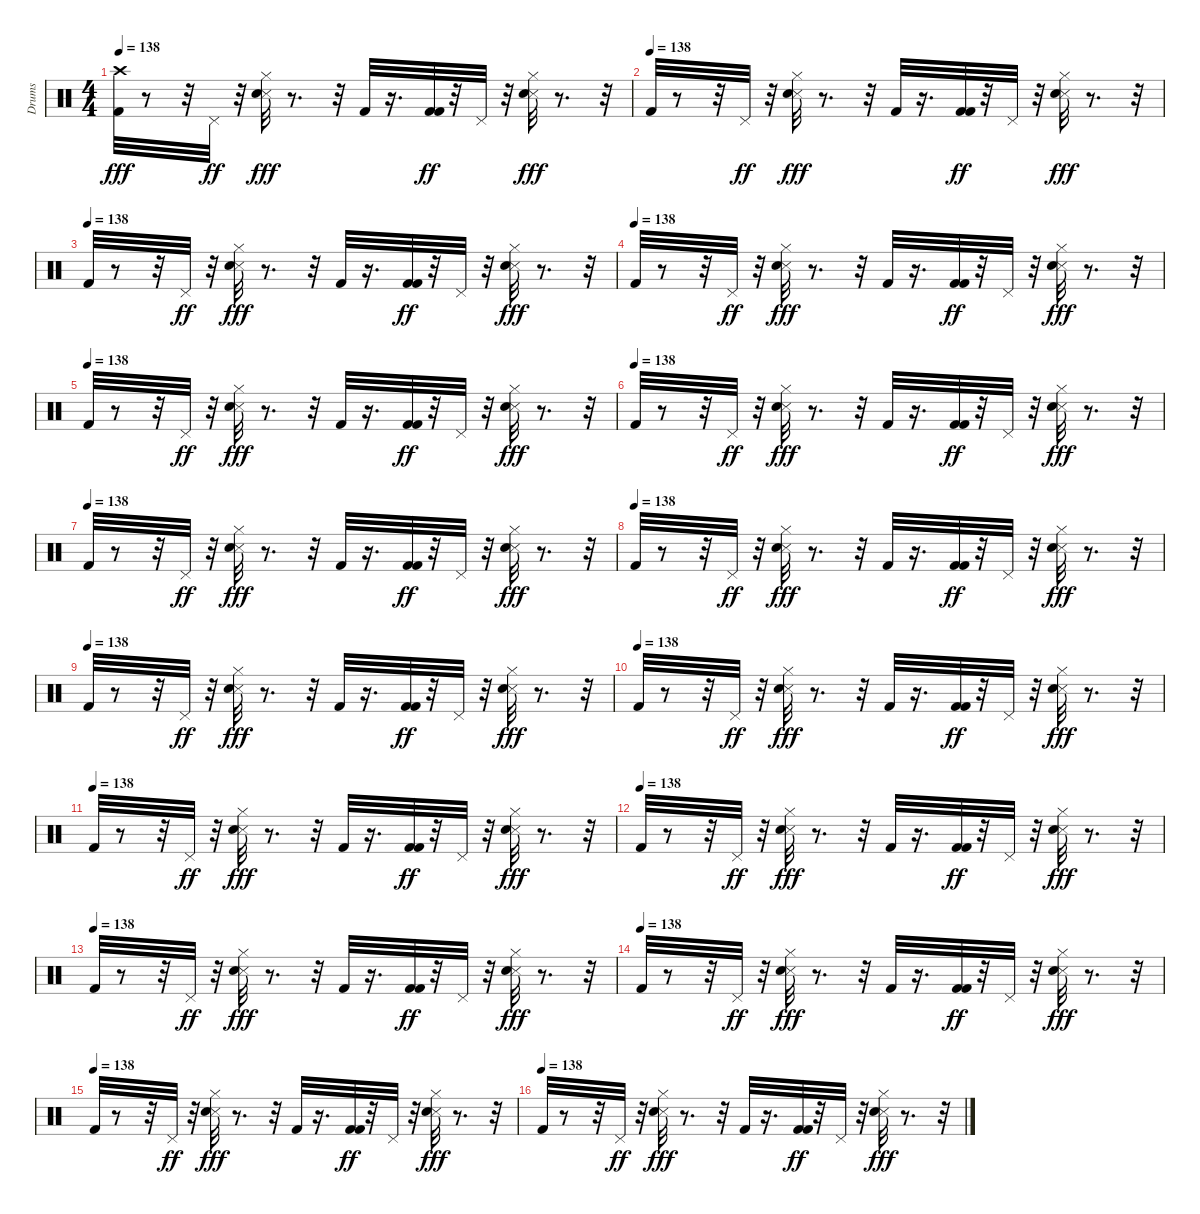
\track ("Drums" "Drums") {instrument percussion}
\staff {score}
\articulation defaults
\ts (4 4)
\tempo 138
\clef neutral
\ks c
("Kick (hit) 2" "Crash high (hit)").32{dy fff volume 10} r.8 r.32 "Pedal Hi-Hat (hit)".32{dy ff} r.32 ("Snare (side stick) 3" "Snare (hit) 2" "Hi-Hat (closed)").32{dy fff} r.8{d} r.32 "Kick (hit) 2".32 r.16{d} ("Kick (hit) 2" "Kick (hit) 2").32{dy ff} r.32 "Pedal Hi-Hat (hit)".32 r.32 ("Snare (side stick) 3" "Snare (hit) 2" "Hi-Hat (closed)").32{dy fff} r.8{d} r.32 |
\tempo (138)
"Kick (hit) 2".32{volume 10} r.8 r.32 "Pedal Hi-Hat (hit)".32{dy ff} r.32 ("Snare (side stick) 3" "Snare (hit) 2" "Hi-Hat (closed)").32{dy fff} r.8{d} r.32 "Kick (hit) 2".32 r.16{d} ("Kick (hit) 2" "Kick (hit) 2").32{dy ff} r.32 "Pedal Hi-Hat (hit)".32 r.32 ("Snare (side stick) 3" "Snare (hit) 2" "Hi-Hat (closed)").32{dy fff} r.8{d} r.32 |
\tempo (138)
"Kick (hit) 2".32{volume 10} r.8 r.32 "Pedal Hi-Hat (hit)".32{dy ff} r.32 ("Snare (side stick) 3" "Snare (hit) 2" "Hi-Hat (closed)").32{dy fff} r.8{d} r.32 "Kick (hit) 2".32 r.16{d} ("Kick (hit) 2" "Kick (hit) 2").32{dy ff} r.32 "Pedal Hi-Hat (hit)".32 r.32 ("Snare (side stick) 3" "Snare (hit) 2" "Hi-Hat (closed)").32{dy fff} r.8{d} r.32 |
\tempo (138)
"Kick (hit) 2".32{volume 10} r.8 r.32 "Pedal Hi-Hat (hit)".32{dy ff} r.32 ("Snare (side stick) 3" "Snare (hit) 2" "Hi-Hat (closed)").32{dy fff} r.8{d} r.32 "Kick (hit) 2".32 r.16{d} ("Kick (hit) 2" "Kick (hit) 2").32{dy ff} r.32 "Pedal Hi-Hat (hit)".32 r.32 ("Snare (side stick) 3" "Snare (hit) 2" "Hi-Hat (closed)").32{dy fff} r.8{d} r.32 |
\tempo (138)
"Kick (hit) 2".32{volume 10} r.8 r.32 "Pedal Hi-Hat (hit)".32{dy ff} r.32 ("Snare (side stick) 3" "Snare (hit) 2" "Hi-Hat (closed)").32{dy fff} r.8{d} r.32 "Kick (hit) 2".32 r.16{d} ("Kick (hit) 2" "Kick (hit) 2").32{dy ff} r.32 "Pedal Hi-Hat (hit)".32 r.32 ("Snare (side stick) 3" "Snare (hit) 2" "Hi-Hat (closed)").32{dy fff} r.8{d} r.32 |
\tempo (138)
"Kick (hit) 2".32{volume 10} r.8 r.32 "Pedal Hi-Hat (hit)".32{dy ff} r.32 ("Snare (side stick) 3" "Snare (hit) 2" "Hi-Hat (closed)").32{dy fff} r.8{d} r.32 "Kick (hit) 2".32 r.16{d} ("Kick (hit) 2" "Kick (hit) 2").32{dy ff} r.32 "Pedal Hi-Hat (hit)".32 r.32 ("Snare (side stick) 3" "Snare (hit) 2" "Hi-Hat (closed)").32{dy fff} r.8{d} r.32 |
\tempo (138)
"Kick (hit) 2".32{volume 10} r.8 r.32 "Pedal Hi-Hat (hit)".32{dy ff} r.32 ("Snare (side stick) 3" "Snare (hit) 2" "Hi-Hat (closed)").32{dy fff} r.8{d} r.32 "Kick (hit) 2".32 r.16{d} ("Kick (hit) 2" "Kick (hit) 2").32{dy ff} r.32 "Pedal Hi-Hat (hit)".32 r.32 ("Snare (side stick) 3" "Snare (hit) 2" "Hi-Hat (closed)").32{dy fff} r.8{d} r.32 |
\tempo (138)
"Kick (hit) 2".32{volume 10} r.8 r.32 "Pedal Hi-Hat (hit)".32{dy ff} r.32 ("Snare (side stick) 3" "Snare (hit) 2" "Hi-Hat (closed)").32{dy fff} r.8{d} r.32 "Kick (hit) 2".32 r.16{d} ("Kick (hit) 2" "Kick (hit) 2").32{dy ff} r.32 "Pedal Hi-Hat (hit)".32 r.32 ("Snare (side stick) 3" "Snare (hit) 2" "Hi-Hat (closed)").32{dy fff} r.8{d} r.32 |
\tempo (138)
"Kick (hit) 2".32{volume 10} r.8 r.32 "Pedal Hi-Hat (hit)".32{dy ff} r.32 ("Snare (side stick) 3" "Snare (hit) 2" "Hi-Hat (closed)").32{dy fff} r.8{d} r.32 "Kick (hit) 2".32 r.16{d} ("Kick (hit) 2" "Kick (hit) 2").32{dy ff} r.32 "Pedal Hi-Hat (hit)".32 r.32 ("Snare (side stick) 3" "Snare (hit) 2" "Hi-Hat (closed)").32{dy fff} r.8{d} r.32 |
\tempo (138)
"Kick (hit) 2".32{volume 10} r.8 r.32 "Pedal Hi-Hat (hit)".32{dy ff} r.32 ("Snare (side stick) 3" "Snare (hit) 2" "Hi-Hat (closed)").32{dy fff} r.8{d} r.32 "Kick (hit) 2".32 r.16{d} ("Kick (hit) 2" "Kick (hit) 2").32{dy ff} r.32 "Pedal Hi-Hat (hit)".32 r.32 ("Snare (side stick) 3" "Snare (hit) 2" "Hi-Hat (closed)").32{dy fff} r.8{d} r.32 |
\tempo (138)
"Kick (hit) 2".32{volume 10} r.8 r.32 "Pedal Hi-Hat (hit)".32{dy ff} r.32 ("Snare (side stick) 3" "Snare (hit) 2" "Hi-Hat (closed)").32{dy fff} r.8{d} r.32 "Kick (hit) 2".32 r.16{d} ("Kick (hit) 2" "Kick (hit) 2").32{dy ff} r.32 "Pedal Hi-Hat (hit)".32 r.32 ("Snare (side stick) 3" "Snare (hit) 2" "Hi-Hat (closed)").32{dy fff} r.8{d} r.32 |
\tempo (138)
"Kick (hit) 2".32{volume 10} r.8 r.32 "Pedal Hi-Hat (hit)".32{dy ff} r.32 ("Snare (side stick) 3" "Snare (hit) 2" "Hi-Hat (closed)").32{dy fff} r.8{d} r.32 "Kick (hit) 2".32 r.16{d} ("Kick (hit) 2" "Kick (hit) 2").32{dy ff} r.32 "Pedal Hi-Hat (hit)".32 r.32 ("Snare (side stick) 3" "Snare (hit) 2" "Hi-Hat (closed)").32{dy fff} r.8{d} r.32 |
\tempo (138)
"Kick (hit) 2".32{volume 10} r.8 r.32 "Pedal Hi-Hat (hit)".32{dy ff} r.32 ("Snare (side stick) 3" "Snare (hit) 2" "Hi-Hat (closed)").32{dy fff} r.8{d} r.32 "Kick (hit) 2".32 r.16{d} ("Kick (hit) 2" "Kick (hit) 2").32{dy ff} r.32 "Pedal Hi-Hat (hit)".32 r.32 ("Snare (side stick) 3" "Snare (hit) 2" "Hi-Hat (closed)").32{dy fff} r.8{d} r.32 |
\tempo (138)
"Kick (hit) 2".32{volume 10} r.8 r.32 "Pedal Hi-Hat (hit)".32{dy ff} r.32 ("Snare (side stick) 3" "Snare (hit) 2" "Hi-Hat (closed)").32{dy fff} r.8{d} r.32 "Kick (hit) 2".32 r.16{d} ("Kick (hit) 2" "Kick (hit) 2").32{dy ff} r.32 "Pedal Hi-Hat (hit)".32 r.32 ("Snare (side stick) 3" "Snare (hit) 2" "Hi-Hat (closed)").32{dy fff} r.8{d} r.32 |
\tempo (138)
"Kick (hit) 2".32{volume 10} r.8 r.32 "Pedal Hi-Hat (hit)".32{dy ff} r.32 ("Snare (side stick) 3" "Snare (hit) 2" "Hi-Hat (closed)").32{dy fff} r.8{d} r.32 "Kick (hit) 2".32 r.16{d} ("Kick (hit) 2" "Kick (hit) 2").32{dy ff} r.32 "Pedal Hi-Hat (hit)".32 r.32 ("Snare (side stick) 3" "Snare (hit) 2" "Hi-Hat (closed)").32{dy fff} r.8{d} r.32 |
\tempo (138)
"Kick (hit) 2".32{volume 10} r.8 r.32 "Pedal Hi-Hat (hit)".32{dy ff} r.32 ("Snare (side stick) 3" "Snare (hit) 2" "Hi-Hat (closed)").32{dy fff} r.8{d} r.32 "Kick (hit) 2".32 r.16{d} ("Kick (hit) 2" "Kick (hit) 2").32{dy ff} r.32 "Pedal Hi-Hat (hit)".32 r.32 ("Snare (side stick) 3" "Snare (hit) 2" "Hi-Hat (closed)").32{dy fff} r.8{d} r.32
